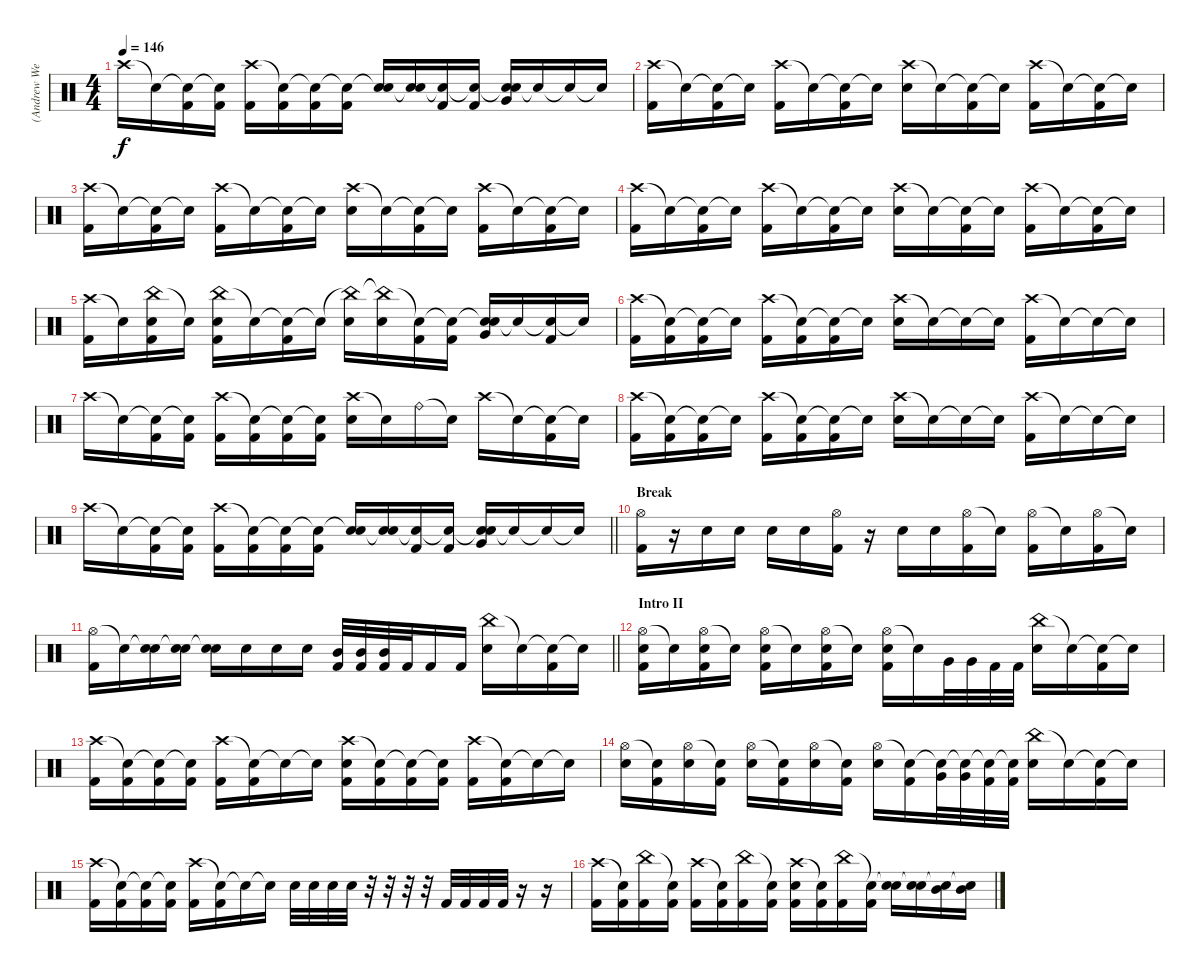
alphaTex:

\track ("(Andrew Wetzel) Drums" "(Andrew We") {instrument percussion}
\staff {score}
\articulation defaults
\ts (4 4)
\tempo 146
\clef neutral
\ks c "Crash high (hit)".16{dy f} "Snare (hit)"{t}.16
("Snare (hit)"{t} "Kick (hit) 2").16 ("Snare (hit)"{t} "Kick (hit) 2").16 ("Crash high (hit)" "Kick (hit) 2").16 ("Snare (hit)"{t} "Kick (hit) 2").16 ("Snare (hit)"{t} "Kick (hit) 2").16 ("Snare (hit)"{t} "Kick (hit) 2").16 ("Snare (hit)"{t} "Electric Snare (hit)").16 ("Snare (hit)"{t} "Electric Snare (hit)").16 ("Snare (hit)"{t} "Kick (hit) 2").16 ("Snare (hit)"{t} "Kick (hit) 2").16 ("Snare (hit)"{t} "Electric Snare (hit)" "Very Low Tom (hit)").16 "Snare (hit)"{t}.16 "Snare (hit)"{t}.16 "Snare (hit)"{t}.16 |
("Crash high (hit)" "Kick (hit) 2").16 "Snare (hit)"{t}.16 ("Snare (hit)"{t} "Kick (hit) 2").16 "Snare (hit)"{t}.16 ("Crash high (hit)" "Kick (hit) 2").16 "Snare (hit)"{t}.16 ("Snare (hit)"{t} "Kick (hit) 2").16 "Snare (hit)"{t}.16 ("Crash high (hit)" "Electric Snare (hit)").16 "Snare (hit)"{t}.16 ("Snare (hit)"{t} "Kick (hit) 2").16 "Snare (hit)"{t}.16 ("Crash high (hit)" "Kick (hit) 2").16 "Snare (hit)"{t}.16 ("Snare (hit)"{t} "Kick (hit) 2").16 "Snare (hit)"{t}.16 |
("Crash high (hit)" "Kick (hit) 2").16 "Snare (hit)"{t}.16 ("Snare (hit)"{t} "Kick (hit) 2").16 "Snare (hit)"{t}.16 ("Crash high (hit)" "Kick (hit) 2").16 "Snare (hit)"{t}.16 ("Snare (hit)"{t} "Kick (hit) 2").16 "Snare (hit)"{t}.16 ("Crash high (hit)" "Electric Snare (hit)").16 "Snare (hit)"{t}.16 ("Snare (hit)"{t} "Kick (hit) 2").16 "Snare (hit)"{t}.16 ("Crash high (hit)" "Kick (hit) 2").16 "Snare (hit)"{t}.16 ("Snare (hit)"{t} "Kick (hit) 2").16 "Snare (hit)"{t}.16 |
("Crash high (hit)" "Kick (hit) 2").16 "Snare (hit)"{t}.16 ("Snare (hit)"{t} "Kick (hit) 2").16 "Snare (hit)"{t}.16 ("Crash high (hit)" "Kick (hit) 2").16 "Snare (hit)"{t}.16 ("Snare (hit)"{t} "Kick (hit) 2").16 "Snare (hit)"{t}.16 ("Crash high (hit)" "Electric Snare (hit)").16 "Snare (hit)"{t}.16 ("Snare (hit)"{t} "Kick (hit) 2").16 "Snare (hit)"{t}.16 ("Crash high (hit)" "Kick (hit) 2").16 "Snare (hit)"{t}.16 ("Snare (hit)"{t} "Kick (hit) 2").16 "Snare (hit)"{t}.16 |
("Crash high (hit)" "Kick (hit) 2").16 "Snare (hit)"{t}.16 ("China (hit)" "Electric Snare (hit)" "Kick (hit) 2").16 "Snare (hit)"{t}.16 ("China (hit)" "Electric Snare (hit)" "Kick (hit) 2").16 "Snare (hit)"{t}.16 ("Snare (hit)"{t} "Kick (hit) 2").16 "Snare (hit)"{t}.16 ("China (hit)"{t} "Electric Snare (hit)").16 ("China (hit)"{t} "Electric Snare (hit)").16 ("Snare (hit)"{t} "Kick (hit) 2").16 ("Snare (hit)"{t} "Kick (hit) 2").16 ("Snare (hit)"{t} "Electric Snare (hit)" "Very Low Tom (hit)").16 "Snare (hit)"{t}.16 ("Snare (hit)"{t} "Kick (hit) 2").16 "Snare (hit)"{t}.16 |
("Crash high (hit)" "Kick (hit) 2").16 ("Snare (hit)"{t} "Kick (hit) 2").16 ("Snare (hit)"{t} "Kick (hit) 2").16 "Snare (hit)"{t}.16 ("Crash high (hit)" "Kick (hit) 2").16 ("Snare (hit)"{t} "Kick (hit) 2").16 ("Snare (hit)"{t} "Kick (hit) 2").16 "Snare (hit)"{t}.16 ("Crash high (hit)" "Electric Snare (hit)").16 "Snare (hit)"{t}.16 "Snare (hit)"{t}.16 "Snare (hit)"{t}.16 ("Crash high (hit)" "Kick (hit) 2").16 "Snare (hit)"{t}.16 "Snare (hit)"{t}.16 "Snare (hit)"{t}.16 |
"Crash high (hit)".16 "Snare (hit)"{t}.16 ("Snare (hit)"{t} "Kick (hit) 2").16 ("Snare (hit)"{t} "Kick (hit) 2").16 ("Crash high (hit)" "Kick (hit) 2").16 ("Snare (hit)"{t} "Kick (hit) 2").16 ("Snare (hit)"{t} "Kick (hit) 2").16 ("Snare (hit)"{t} "Kick (hit) 2").16 ("Crash high (hit)" "Electric Snare (hit)").16 "Snare (hit)"{t}.16 "Ride (bell)".16 "Snare (hit)"{t}.16 "Crash high (hit)".16 "Snare (hit)"{t}.16 ("Snare (hit)"{t} "Kick (hit) 2").16 "Snare (hit)"{t}.16 |
("Crash high (hit)" "Kick (hit) 2").16 ("Snare (hit)"{t} "Kick (hit) 2").16 ("Snare (hit)"{t} "Kick (hit) 2").16 "Snare (hit)"{t}.16 ("Crash high (hit)" "Kick (hit) 2").16 ("Snare (hit)"{t} "Kick (hit) 2").16 ("Snare (hit)"{t} "Kick (hit) 2").16 "Snare (hit)"{t}.16 ("Crash high (hit)" "Electric Snare (hit)").16 "Snare (hit)"{t}.16 "Snare (hit)"{t}.16 "Snare (hit)"{t}.16 ("Crash high (hit)" "Kick (hit) 2").16 "Snare (hit)"{t}.16 "Snare (hit)"{t}.16 "Snare (hit)"{t}.16 |
\barLineRight lightlight "Crash high (hit)".16 "Snare (hit)"{t}.16
("Snare (hit)"{t} "Kick (hit) 2").16 ("Snare (hit)"{t} "Kick (hit) 2").16 ("Crash high (hit)" "Kick (hit) 2").16 ("Snare (hit)"{t} "Kick (hit) 2").16 ("Snare (hit)"{t} "Kick (hit) 2").16 ("Snare (hit)"{t} "Kick (hit) 2").16 ("Snare (hit)"{t} "Electric Snare (hit)").16 ("Snare (hit)"{t} "Electric Snare (hit)").16 ("Snare (hit)"{t} "Kick (hit) 2").16 ("Snare (hit)"{t} "Kick (hit) 2").16 ("Snare (hit)"{t} "Electric Snare (hit)" "Very Low Tom (hit)").16 "Snare (hit)"{t}.16 "Snare (hit)"{t}.16 "Snare (hit)"{t}.16 |
\section ("" "Break")
("Hi-Hat (open)" "Kick (hit) 2").16 r.16 "Electric Snare (hit)".16 "Electric Snare (hit)".16 "Electric Snare (hit)".16 "Electric Snare (hit)".16 ("Hi-Hat (open)" "Kick (hit) 2").16 r.16 "Electric Snare (hit)".16 "Electric Snare (hit)".16 ("Hi-Hat (open)" "Kick (hit) 2").16 "Snare (hit)"{t}.16 ("Hi-Hat (open)" "Kick (hit) 2").16 "Snare (hit)"{t}.16 ("Hi-Hat (open)" "Kick (hit) 2").16 "Snare (hit)"{t}.16 |
\barLineRight lightlight
("Hi-Hat (open)" "Kick (hit) 2").16 "Snare (hit)"{t}.16 ("Snare (hit)"{t} "Electric Snare (hit)").16 ("Snare (hit)"{t} "Electric Snare (hit)").16 ("Snare (hit)"{t} "Electric Snare (hit)").16 "Electric Snare (hit)".16 "Electric Snare (hit)".16 "Electric Snare (hit)".16 ("Mid Tom (hit)" "Kick (hit) 2").32 ("Mid Tom (hit)" "Kick (hit) 2").32 ("Mid Tom (hit)" "Kick (hit) 2").32 "Kick (hit) 2".32 "Kick (hit) 2".16 "Kick (hit) 2".16 ("China (hit)" "Electric Snare (hit)").16 "Snare (hit)"{t}.16 ("Snare (hit)"{t} "Kick (hit) 2").16 "Snare (hit)"{t}.16 |
\section ("" "Intro II")
("Hi-Hat (open)" "Electric Snare (hit)" "Kick (hit) 2").16 "Snare (hit)"{t}.16 ("Hi-Hat (open)" "Electric Snare (hit)" "Kick (hit) 2").16 "Snare (hit)"{t}.16 ("Hi-Hat (open)" "Electric Snare (hit)" "Kick (hit) 2").16 "Snare (hit)"{t}.16 ("Hi-Hat (open)" "Electric Snare (hit)" "Kick (hit) 2").16 "Snare (hit)"{t}.16 ("Hi-Hat (open)" "Electric Snare (hit)" "Kick (hit) 2").16 "Snare (hit)"{t}.16 "Very Low Tom (hit)".32 "Very Low Tom (hit)".32 "Kick (hit) 2".32 "Kick (hit) 2".32 ("China (hit)" "Electric Snare (hit)").16 "Snare (hit)"{t}.16 ("Snare (hit)"{t} "Kick (hit) 2").16 "Snare (hit)"{t}.16 |
("Crash high (hit)" "Kick (hit) 2").16 ("Snare (hit)"{t} "Kick (hit) 2").16 ("Snare (hit)"{t} "Kick (hit) 2").16 ("Snare (hit)"{t} "Kick (hit) 2").16 ("Crash high (hit)" "Kick (hit) 2").16 ("Snare (hit)"{t} "Kick (hit) 2").16 "Snare (hit)"{t}.16 "Snare (hit)"{t}.16 ("Crash high (hit)" "Electric Snare (hit)" "Kick (hit) 2").16 ("Snare (hit)"{t} "Kick (hit) 2").16 ("Snare (hit)"{t} "Kick (hit) 2").16 ("Snare (hit)"{t} "Kick (hit) 2").16 ("Crash high (hit)" "Kick (hit) 2").16 ("Snare (hit)"{t} "Kick (hit) 2").16 "Snare (hit)"{t}.16 "Snare (hit)"{t}.16 |
("Hi-Hat (open)" "Electric Snare (hit)").16 ("Snare (hit)"{t} "Kick (hit) 2").16 ("Hi-Hat (open)" "Electric Snare (hit)").16 ("Snare (hit)"{t} "Kick (hit) 2").16 ("Hi-Hat (open)" "Electric Snare (hit)").16 ("Snare (hit)"{t} "Kick (hit) 2").16 ("Hi-Hat (open)" "Electric Snare (hit)").16 ("Snare (hit)"{t} "Kick (hit) 2").16 ("Hi-Hat (open)" "Electric Snare (hit)").16 ("Snare (hit)"{t} "Kick (hit) 2").16 ("Snare (hit)"{t} "Very Low Tom (hit)").32 ("Snare (hit)"{t} "Very Low Tom (hit)").32 ("Snare (hit)"{t} "Kick (hit) 2").32 ("Snare (hit)"{t} "Kick (hit) 2").32 ("China (hit)" "Electric Snare (hit)").16 "Snare (hit)"{t}.16 ("Snare (hit)"{t} "Kick (hit) 2").16 "Snare (hit)"{t}.16 |
("Crash high (hit)" "Kick (hit) 2").16 ("Snare (hit)"{t} "Kick (hit) 2").16 ("Snare (hit)"{t} "Kick (hit) 2").16 ("Snare (hit)"{t} "Kick (hit) 2").16 ("Crash high (hit)" "Kick (hit) 2").16 ("Snare (hit)"{t} "Kick (hit) 2").16 "Snare (hit)"{t}.16 "Snare (hit)"{t}.16 "Electric Snare (hit)".32 "Electric Snare (hit)".32 "Electric Snare (hit)".32 "Electric Snare (hit)".32 r.32 r.32 r.32 r.32 "Kick (hit) 2".32 "Kick (hit) 2".32 "Kick (hit) 2".32 "Kick (hit) 2".32 r.16 r.16 |
("Crash high (hit)" "Kick (hit) 2").16 ("Snare (hit)"{t} "Kick (hit) 2").16 ("China (hit)" "Kick (hit) 2").16 ("Snare (hit)"{t} "Kick (hit) 2").16 ("Crash high (hit)" "Kick (hit) 2").16 ("Snare (hit)"{t} "Kick (hit) 2").16 ("China (hit)" "Kick (hit) 2").16 ("Snare (hit)"{t} "Kick (hit) 2").16 ("Crash high (hit)" "Electric Snare (hit)" "Kick (hit) 2").16 ("Snare (hit)"{t} "Kick (hit) 2").16 ("China (hit)" "Kick (hit) 2").16 ("Snare (hit)"{t} "Kick (hit) 2").16 ("Snare (hit)"{t} "Electric Snare (hit)").16 ("Snare (hit)"{t} "Electric Snare (hit)").16 ("Snare (hit)"{t} "Mid Tom (hit)").16 ("Snare (hit)"{t} "Mid Tom (hit)").16
